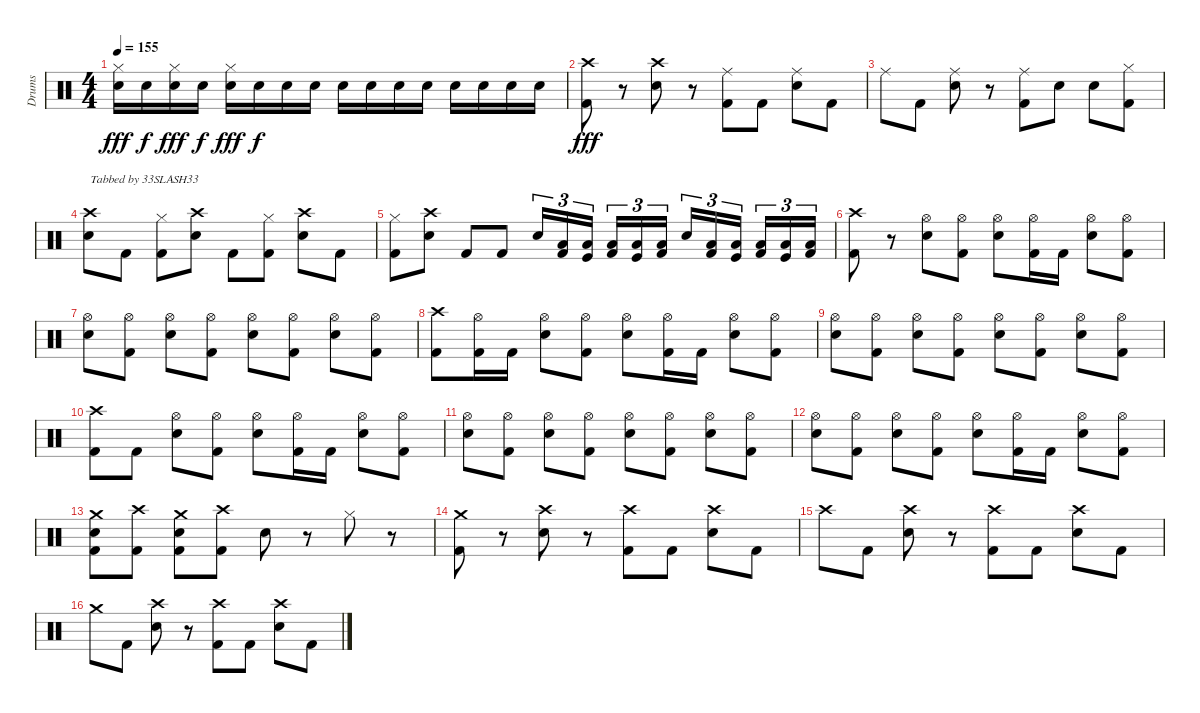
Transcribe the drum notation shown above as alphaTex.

\track ("Drums" "Drums") {instrument percussion}
\staff {score}
\articulation defaults
\ts (4 4)
\tempo 155
\clef neutral
\ks c
("Hi-Hat (closed)" "Snare (hit) 2").16{dy fff} "Snare (hit) 2".16{dy f} ("Hi-Hat (closed)" "Snare (hit) 2").16{dy fff} "Snare (hit) 2".16{dy f} ("Hi-Hat (closed)" "Snare (hit) 2").16{dy fff} "Snare (hit) 2".16{dy f} "Snare (hit) 2".16 "Snare (hit) 2".16 "Snare (hit) 2".16 "Snare (hit) 2".16 "Snare (hit) 2".16 "Snare (hit) 2".16 "Snare (hit) 2".16 "Snare (hit) 2".16 "Snare (hit) 2".16 "Snare (hit) 2".16 |
("Crash high (hit)" "Kick (hit) 2").8{dy fff} r.8 ("Crash high (hit)" "Snare (hit) 2").8 r.8 ("Ride (middle)" "Kick (hit) 2").8 "Kick (hit) 2".8 ("Ride (middle)" "Snare (hit) 2").8 "Kick (hit) 2".8 |
"Ride (middle)".8 "Kick (hit) 2".8 ("Ride (middle)" "Snare (hit) 2").8 r.8 ("Ride (middle)" "Kick (hit) 2").8 "Snare (hit) 2".8 "Snare (hit) 2".8 ("Hi-Hat (closed)" "Kick (hit) 2").8 |
("Crash high (hit)" "Snare (hit) 2").8{txt "Tabbed by 33SLASH33"} "Kick (hit) 2".8 ("Hi-Hat (closed)" "Kick (hit) 2").8 ("Crash high (hit)" "Snare (hit) 2").8 "Kick (hit) 2".8 ("Hi-Hat (closed)" "Kick (hit) 2").8 ("Crash high (hit)" "Snare (hit) 2").8 "Kick (hit) 2".8 |
("Hi-Hat (closed)" "Kick (hit) 2").8 ("Crash high (hit)" "Snare (hit) 2").8 "Kick (hit) 2".8 "Kick (hit) 2".8 "Snare (hit) 2".16{tu (3 2)} ("Low Tom (hit)" "Kick (hit) 2").16{tu (3 2)} ("Low Tom (hit)" "Kick (hit)").16{tu (3 2) beam splitsecondary} ("Low Tom (hit)" "Kick (hit) 2").16{tu (3 2)} ("Low Floor Tom (hit)" "Kick (hit)").16{tu (3 2)} ("Low Floor Tom (hit)" "Kick (hit) 2").16{tu (3 2)} "Snare (hit) 2".16{tu (3 2)} ("Low Tom (hit)" "Kick (hit) 2").16{tu (3 2)} ("Low Tom (hit)" "Kick (hit)").16{tu (3 2) beam splitsecondary} ("Low Tom (hit)" "Kick (hit) 2").16{tu (3 2)} ("Low Floor Tom (hit)" "Kick (hit)").16{tu (3 2)} ("Low Floor Tom (hit)" "Kick (hit) 2").16{tu (3 2)} |
("Crash high (hit)" "Kick (hit) 2").8 r.8 ("Hi-Hat (open)" "Snare (hit) 2").8 ("Hi-Hat (open)" "Kick (hit) 2").8 ("Hi-Hat (open)" "Snare (hit) 2").8 ("Hi-Hat (open)" "Kick (hit) 2").16 "Kick (hit) 2".16 ("Hi-Hat (open)" "Snare (hit) 2").8 ("Hi-Hat (open)" "Kick (hit) 2").8 |
("Hi-Hat (open)" "Snare (hit) 2").8 ("Hi-Hat (open)" "Kick (hit) 2").8 ("Hi-Hat (open)" "Snare (hit) 2").8 ("Hi-Hat (open)" "Kick (hit) 2").8 ("Hi-Hat (open)" "Snare (hit) 2").8 ("Hi-Hat (open)" "Kick (hit) 2").8 ("Hi-Hat (open)" "Snare (hit) 2").8 ("Hi-Hat (open)" "Kick (hit) 2").8 |
("Crash high (hit)" "Kick (hit) 2").8 ("Hi-Hat (open)" "Kick (hit) 2").16 "Kick (hit) 2".16 ("Hi-Hat (open)" "Snare (hit) 2").8 ("Hi-Hat (open)" "Kick (hit) 2").8 ("Hi-Hat (open)" "Snare (hit) 2").8 ("Hi-Hat (open)" "Kick (hit) 2").16 "Kick (hit) 2".16 ("Hi-Hat (open)" "Snare (hit) 2").8 ("Hi-Hat (open)" "Kick (hit) 2").8 |
("Hi-Hat (open)" "Snare (hit) 2").8 ("Hi-Hat (open)" "Kick (hit) 2").8 ("Hi-Hat (open)" "Snare (hit) 2").8 ("Hi-Hat (open)" "Kick (hit) 2").8 ("Hi-Hat (open)" "Snare (hit) 2").8 ("Hi-Hat (open)" "Kick (hit) 2").8 ("Hi-Hat (open)" "Snare (hit) 2").8 ("Hi-Hat (open)" "Kick (hit) 2").8 |
("Crash high (hit)" "Kick (hit) 2").8 "Kick (hit) 2".8 ("Hi-Hat (open)" "Snare (hit) 2").8 ("Hi-Hat (open)" "Kick (hit) 2").8 ("Hi-Hat (open)" "Snare (hit) 2").8 ("Hi-Hat (open)" "Kick (hit) 2").16 "Kick (hit) 2".16 ("Hi-Hat (open)" "Snare (hit) 2").8 ("Hi-Hat (open)" "Kick (hit) 2").8 |
("Hi-Hat (open)" "Snare (hit) 2").8 ("Hi-Hat (open)" "Kick (hit) 2").8 ("Hi-Hat (open)" "Snare (hit) 2").8 ("Hi-Hat (open)" "Kick (hit) 2").8 ("Hi-Hat (open)" "Snare (hit) 2").8 ("Hi-Hat (open)" "Kick (hit) 2").8 ("Hi-Hat (open)" "Snare (hit) 2").8 ("Hi-Hat (open)" "Kick (hit) 2").8 |
("Hi-Hat (open)" "Snare (hit) 2").8 ("Hi-Hat (open)" "Kick (hit) 2").8 ("Hi-Hat (open)" "Snare (hit) 2").8 ("Hi-Hat (open)" "Kick (hit) 2").8 ("Hi-Hat (open)" "Snare (hit) 2").8 ("Hi-Hat (open)" "Kick (hit) 2").16 "Kick (hit) 2".16 ("Hi-Hat (open)" "Snare (hit) 2").8 ("Hi-Hat (open)" "Kick (hit) 2").8 |
("Crash medium (hit)" "Snare (hit) 2" "Kick (hit) 2").8 ("Crash high (hit)" "Kick (hit) 2").8 ("Crash medium (hit)" "Snare (hit) 2" "Kick (hit) 2").8 ("Crash high (hit)" "Kick (hit) 2").8 "Snare (hit) 2".8 r.8 "Hi-Hat (closed)".8 r.8 |
("Crash medium (hit)" "Kick (hit) 2").8 r.8 ("Crash high (hit)" "Snare (hit) 2").8 r.8 ("Crash high (hit)" "Kick (hit) 2").8 "Kick (hit) 2".8 ("Crash high (hit)" "Snare (hit) 2").8 "Kick (hit) 2".8 |
"Crash high (hit)".8 "Kick (hit) 2".8 ("Crash high (hit)" "Snare (hit) 2").8 r.8 ("Crash high (hit)" "Kick (hit) 2").8 "Kick (hit) 2".8 ("Crash high (hit)" "Snare (hit) 2").8 "Kick (hit) 2".8 |
"Crash medium (hit)".8 "Kick (hit) 2".8 ("Crash high (hit)" "Snare (hit) 2").8 r.8 ("Crash high (hit)" "Kick (hit) 2").8 "Kick (hit) 2".8 ("Crash high (hit)" "Snare (hit) 2").8 "Kick (hit) 2".8
